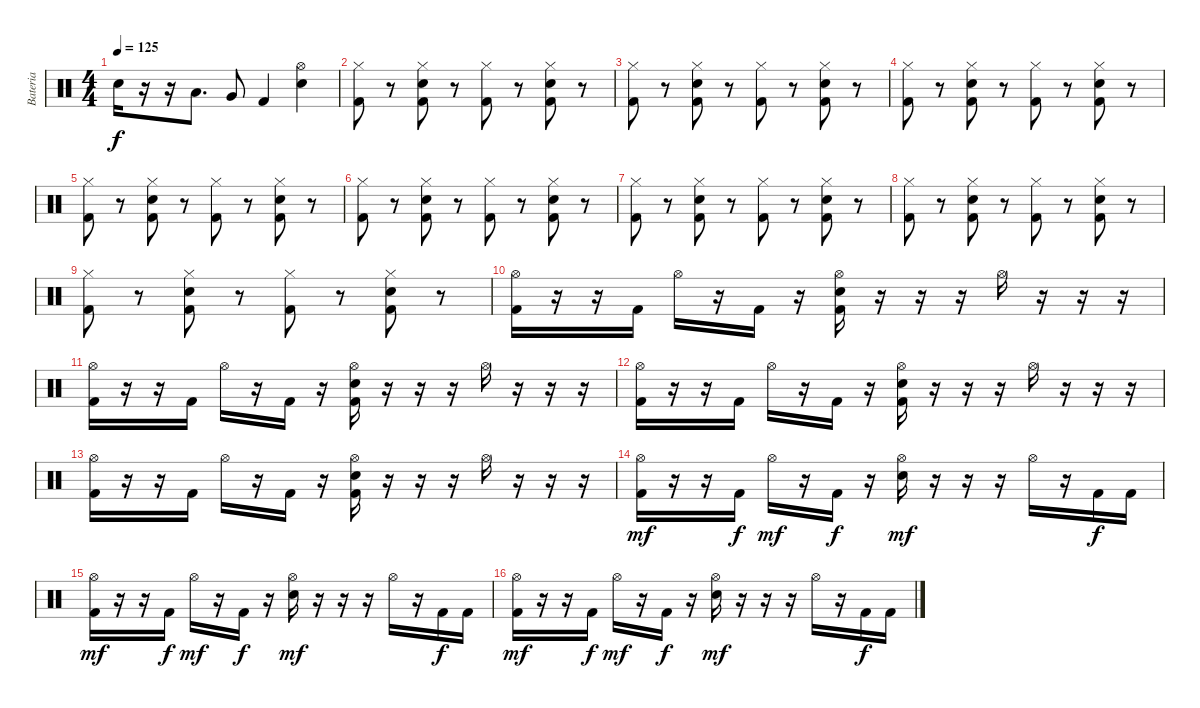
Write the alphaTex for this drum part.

\track ("Bateria" "Bateria") {instrument percussion}
\staff {score}
\articulation defaults
\ts (4 4)
\tempo 125
\clef neutral
\ks c "Electric Snare (hit)".16{dy f}
r.16 r.16 "Low Tom (hit)".8{d} "Very Low Tom (hit)".8 "Kick (hit) 2".4 ("Electric Snare (hit)" "Hi-Hat (open)").4 |
("Kick (hit) 2" "Hi-Hat (closed)").8 r.8 ("Kick (hit) 2" "Electric Snare (hit)" "Hi-Hat (closed)").8 r.8 ("Kick (hit) 2" "Hi-Hat (closed)").8 r.8 ("Kick (hit) 2" "Electric Snare (hit)" "Hi-Hat (closed)").8 r.8 |
("Kick (hit) 2" "Hi-Hat (closed)").8 r.8 ("Kick (hit) 2" "Electric Snare (hit)" "Hi-Hat (closed)").8 r.8 ("Kick (hit) 2" "Hi-Hat (closed)").8 r.8 ("Kick (hit) 2" "Electric Snare (hit)" "Hi-Hat (closed)").8 r.8 |
("Kick (hit) 2" "Hi-Hat (closed)").8 r.8 ("Kick (hit) 2" "Electric Snare (hit)" "Hi-Hat (closed)").8 r.8 ("Kick (hit) 2" "Hi-Hat (closed)").8 r.8 ("Kick (hit) 2" "Electric Snare (hit)" "Hi-Hat (closed)").8 r.8 |
("Kick (hit) 2" "Hi-Hat (closed)").8 r.8 ("Kick (hit) 2" "Electric Snare (hit)" "Hi-Hat (closed)").8 r.8 ("Kick (hit) 2" "Hi-Hat (closed)").8 r.8 ("Kick (hit) 2" "Electric Snare (hit)" "Hi-Hat (closed)").8 r.8 |
("Kick (hit) 2" "Hi-Hat (closed)").8 r.8 ("Kick (hit) 2" "Electric Snare (hit)" "Hi-Hat (closed)").8 r.8 ("Kick (hit) 2" "Hi-Hat (closed)").8 r.8 ("Kick (hit) 2" "Electric Snare (hit)" "Hi-Hat (closed)").8 r.8 |
("Kick (hit) 2" "Hi-Hat (closed)").8 r.8 ("Kick (hit) 2" "Electric Snare (hit)" "Hi-Hat (closed)").8 r.8 ("Kick (hit) 2" "Hi-Hat (closed)").8 r.8 ("Kick (hit) 2" "Electric Snare (hit)" "Hi-Hat (closed)").8 r.8 |
("Kick (hit) 2" "Hi-Hat (closed)").8 r.8 ("Kick (hit) 2" "Electric Snare (hit)" "Hi-Hat (closed)").8 r.8 ("Kick (hit) 2" "Hi-Hat (closed)").8 r.8 ("Kick (hit) 2" "Electric Snare (hit)" "Hi-Hat (closed)").8 r.8 |
("Kick (hit) 2" "Hi-Hat (closed)").8 r.8 ("Kick (hit) 2" "Electric Snare (hit)" "Hi-Hat (closed)").8 r.8 ("Kick (hit) 2" "Hi-Hat (closed)").8 r.8 ("Kick (hit) 2" "Electric Snare (hit)" "Hi-Hat (closed)").8 r.8 |
("Kick (hit) 2" "Hi-Hat (open)").16 r.16 r.16 "Kick (hit) 2".16 "Hi-Hat (open)".16 r.16 "Kick (hit) 2".16 r.16 ("Kick (hit) 2" "Electric Snare (hit)" "Hi-Hat (open)").16 r.16 r.16 r.16 "Hi-Hat (open)".16 r.16 r.16 r.16 |
("Kick (hit) 2" "Hi-Hat (open)").16 r.16 r.16 "Kick (hit) 2".16 "Hi-Hat (open)".16 r.16 "Kick (hit) 2".16 r.16 ("Kick (hit) 2" "Electric Snare (hit)" "Hi-Hat (open)").16 r.16 r.16 r.16 "Hi-Hat (open)".16 r.16 r.16 r.16 |
("Kick (hit) 2" "Hi-Hat (open)").16 r.16 r.16 "Kick (hit) 2".16 "Hi-Hat (open)".16 r.16 "Kick (hit) 2".16 r.16 ("Kick (hit) 2" "Electric Snare (hit)" "Hi-Hat (open)").16 r.16 r.16 r.16 "Hi-Hat (open)".16 r.16 r.16 r.16 |
("Kick (hit) 2" "Hi-Hat (open)").16 r.16 r.16 "Kick (hit) 2".16 "Hi-Hat (open)".16 r.16 "Kick (hit) 2".16 r.16 ("Kick (hit) 2" "Electric Snare (hit)" "Hi-Hat (open)").16 r.16 r.16 r.16 "Hi-Hat (open)".16 r.16 r.16 r.16 |
("Kick (hit) 2" "Hi-Hat (open)").16{dy mf} r.16 r.16 "Kick (hit) 2".16{dy f} "Hi-Hat (open)".16{dy mf} r.16 "Kick (hit) 2".16{dy f} r.16 ("Electric Snare (hit)" "Hi-Hat (open)").16{dy mf} r.16 r.16 r.16 "Hi-Hat (open)".16 r.16 "Kick (hit) 2".16{dy f} "Kick (hit) 2".16 |
("Kick (hit) 2" "Hi-Hat (open)").16{dy mf} r.16 r.16 "Kick (hit) 2".16{dy f} "Hi-Hat (open)".16{dy mf} r.16 "Kick (hit) 2".16{dy f} r.16 ("Electric Snare (hit)" "Hi-Hat (open)").16{dy mf} r.16 r.16 r.16 "Hi-Hat (open)".16 r.16 "Kick (hit) 2".16{dy f} "Kick (hit) 2".16 |
("Kick (hit) 2" "Hi-Hat (open)").16{dy mf} r.16 r.16 "Kick (hit) 2".16{dy f} "Hi-Hat (open)".16{dy mf} r.16 "Kick (hit) 2".16{dy f} r.16 ("Electric Snare (hit)" "Hi-Hat (open)").16{dy mf} r.16 r.16 r.16 "Hi-Hat (open)".16 r.16 "Kick (hit) 2".16{dy f} "Kick (hit) 2".16
